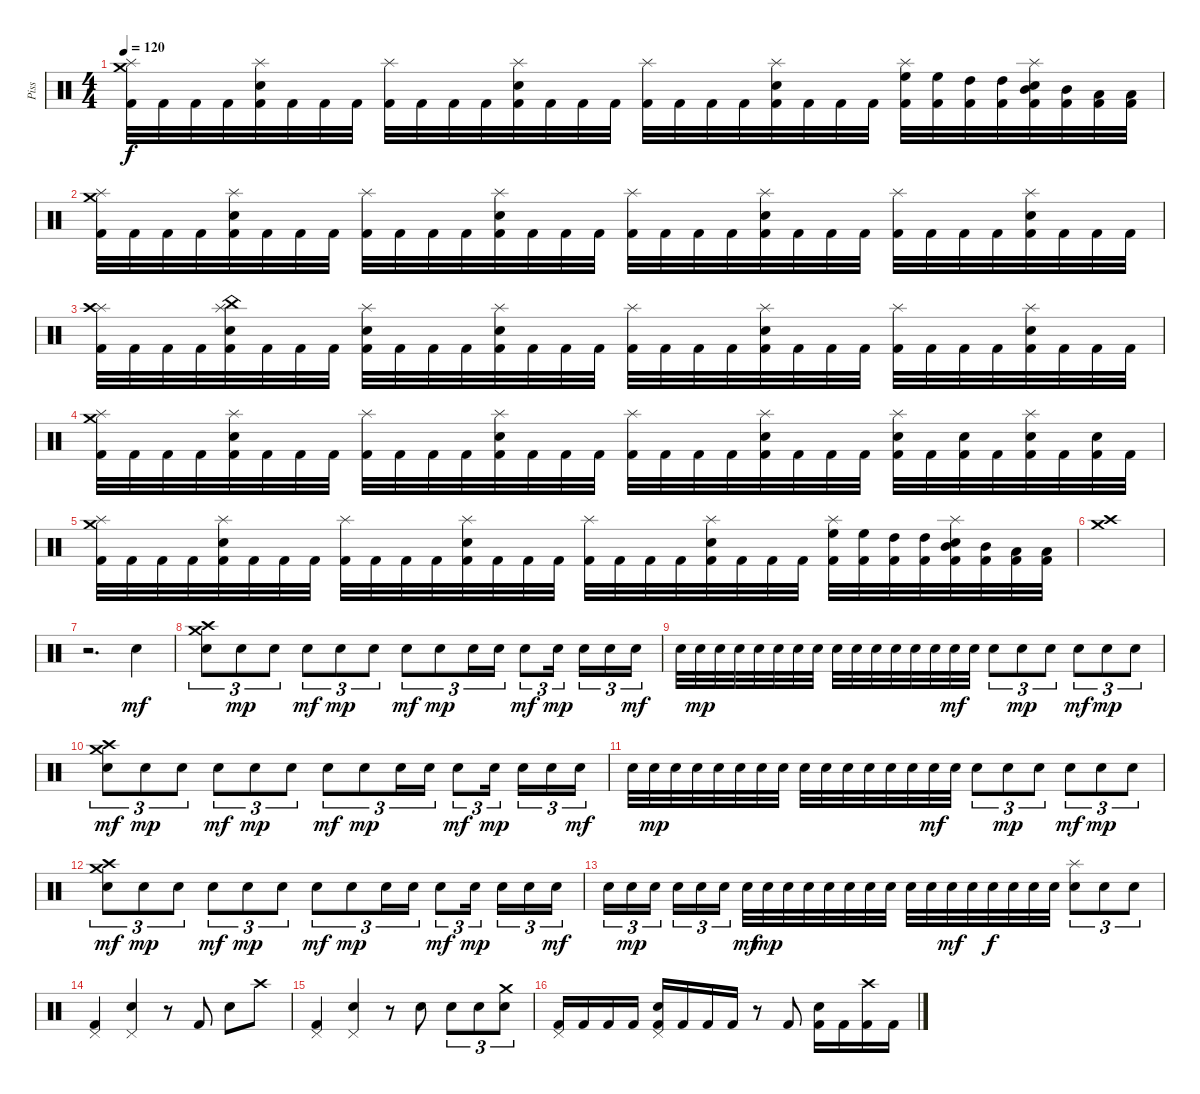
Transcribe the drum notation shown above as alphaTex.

\track ("Piss" "Piss") {instrument percussion}
\staff {score}
\articulation defaults
\ts (4 4)
\tempo 120
\clef neutral
\ks c
("Splash (hit)" "Crash medium (hit)" "Kick (hit) 2").32{dy f} "Kick (hit) 2".32 "Kick (hit) 2".32 "Kick (hit) 2".32 ("Splash (hit)" "Electric Snare (hit)" "Kick (hit) 2").32 "Kick (hit) 2".32 "Kick (hit) 2".32 "Kick (hit) 2".32 ("Splash (hit)" "Kick (hit) 2").32 "Kick (hit) 2".32 "Kick (hit) 2".32 "Kick (hit) 2".32 ("Splash (hit)" "Electric Snare (hit)" "Kick (hit) 2").32 "Kick (hit) 2".32 "Kick (hit) 2".32 "Kick (hit) 2".32 ("Splash (hit)" "Kick (hit) 2").32 "Kick (hit) 2".32 "Kick (hit) 2".32 "Kick (hit) 2".32 ("Splash (hit)" "Electric Snare (hit)" "Kick (hit) 2").32 "Kick (hit) 2".32 "Kick (hit) 2".32 "Kick (hit) 2".32 ("Splash (hit)" "High Floor Tom (hit)" "Kick (hit) 2").32 ("High Floor Tom (hit)" "Kick (hit) 2").32 ("High Tom (hit)" "Kick (hit) 2").32 ("High Tom (hit)" "Kick (hit) 2").32 ("Splash (hit)" "Mid Tom (hit)" "Electric Snare (hit)" "Kick (hit) 2").32 ("Mid Tom (hit)" "Kick (hit) 2").32 ("Low Tom (hit)" "Kick (hit) 2").32 ("Low Tom (hit)" "Kick (hit) 2").32 |
("Splash (hit)" "Crash medium (hit)" "Kick (hit) 2").32 "Kick (hit) 2".32 "Kick (hit) 2".32 "Kick (hit) 2".32 ("Splash (hit)" "Electric Snare (hit)" "Kick (hit) 2").32 "Kick (hit) 2".32 "Kick (hit) 2".32 "Kick (hit) 2".32 ("Splash (hit)" "Kick (hit) 2").32 "Kick (hit) 2".32 "Kick (hit) 2".32 "Kick (hit) 2".32 ("Splash (hit)" "Electric Snare (hit)" "Kick (hit) 2").32 "Kick (hit) 2".32 "Kick (hit) 2".32 "Kick (hit) 2".32 ("Splash (hit)" "Kick (hit) 2").32 "Kick (hit) 2".32 "Kick (hit) 2".32 "Kick (hit) 2".32 ("Splash (hit)" "Electric Snare (hit)" "Kick (hit) 2").32 "Kick (hit) 2".32 "Kick (hit) 2".32 "Kick (hit) 2".32 ("Splash (hit)" "Kick (hit) 2").32 "Kick (hit) 2".32 "Kick (hit) 2".32 "Kick (hit) 2".32 ("Splash (hit)" "Electric Snare (hit)" "Kick (hit) 2").32 "Kick (hit) 2".32 "Kick (hit) 2".32 "Kick (hit) 2".32 |
("Splash (hit)" "Crash high (hit)" "Kick (hit) 2").32 "Kick (hit) 2".32 "Kick (hit) 2".32 "Kick (hit) 2".32 ("Splash (hit)" "China (hit)" "Electric Snare (hit)" "Kick (hit) 2").32 "Kick (hit) 2".32 "Kick (hit) 2".32 "Kick (hit) 2".32 ("Splash (hit)" "Electric Snare (hit)" "Kick (hit) 2").32 "Kick (hit) 2".32 "Kick (hit) 2".32 "Kick (hit) 2".32 ("Splash (hit)" "Electric Snare (hit)" "Kick (hit) 2").32 "Kick (hit) 2".32 "Kick (hit) 2".32 "Kick (hit) 2".32 ("Splash (hit)" "Kick (hit) 2").32 "Kick (hit) 2".32 "Kick (hit) 2".32 "Kick (hit) 2".32 ("Splash (hit)" "Electric Snare (hit)" "Kick (hit) 2").32 "Kick (hit) 2".32 "Kick (hit) 2".32 "Kick (hit) 2".32 ("Splash (hit)" "Kick (hit) 2").32 "Kick (hit) 2".32 "Kick (hit) 2".32 "Kick (hit) 2".32 ("Splash (hit)" "Electric Snare (hit)" "Kick (hit) 2").32 "Kick (hit) 2".32 "Kick (hit) 2".32 "Kick (hit) 2".32 |
("Splash (hit)" "Crash medium (hit)" "Kick (hit) 2").32 "Kick (hit) 2".32 "Kick (hit) 2".32 "Kick (hit) 2".32 ("Splash (hit)" "Electric Snare (hit)" "Kick (hit) 2").32 "Kick (hit) 2".32 "Kick (hit) 2".32 "Kick (hit) 2".32 ("Splash (hit)" "Kick (hit) 2").32 "Kick (hit) 2".32 "Kick (hit) 2".32 "Kick (hit) 2".32 ("Splash (hit)" "Electric Snare (hit)" "Kick (hit) 2").32 "Kick (hit) 2".32 "Kick (hit) 2".32 "Kick (hit) 2".32 ("Splash (hit)" "Kick (hit) 2").32 "Kick (hit) 2".32 "Kick (hit) 2".32 "Kick (hit) 2".32 ("Splash (hit)" "Electric Snare (hit)" "Kick (hit) 2").32 "Kick (hit) 2".32 "Kick (hit) 2".32 "Kick (hit) 2".32 ("Splash (hit)" "Electric Snare (hit)" "Kick (hit) 2").32 "Kick (hit) 2".32 ("Electric Snare (hit)" "Kick (hit) 2").32 "Kick (hit) 2".32 ("Splash (hit)" "Electric Snare (hit)" "Kick (hit) 2").32 "Kick (hit) 2".32 ("Electric Snare (hit)" "Kick (hit) 2").32 "Kick (hit) 2".32 |
("Splash (hit)" "Crash medium (hit)" "Kick (hit) 2").32 "Kick (hit) 2".32 "Kick (hit) 2".32 "Kick (hit) 2".32 ("Splash (hit)" "Electric Snare (hit)" "Kick (hit) 2").32 "Kick (hit) 2".32 "Kick (hit) 2".32 "Kick (hit) 2".32 ("Splash (hit)" "Kick (hit) 2").32 "Kick (hit) 2".32 "Kick (hit) 2".32 "Kick (hit) 2".32 ("Splash (hit)" "Electric Snare (hit)" "Kick (hit) 2").32 "Kick (hit) 2".32 "Kick (hit) 2".32 "Kick (hit) 2".32 ("Splash (hit)" "Kick (hit) 2").32 "Kick (hit) 2".32 "Kick (hit) 2".32 "Kick (hit) 2".32 ("Splash (hit)" "Electric Snare (hit)" "Kick (hit) 2").32 "Kick (hit) 2".32 "Kick (hit) 2".32 "Kick (hit) 2".32 ("Splash (hit)" "High Floor Tom (hit)" "Kick (hit) 2").32 ("High Floor Tom (hit)" "Kick (hit) 2").32 ("High Tom (hit)" "Kick (hit) 2").32 ("High Tom (hit)" "Kick (hit) 2").32 ("Splash (hit)" "Mid Tom (hit)" "Electric Snare (hit)" "Kick (hit) 2").32 ("Mid Tom (hit)" "Kick (hit) 2").32 ("Low Tom (hit)" "Kick (hit) 2").32 ("Low Tom (hit)" "Kick (hit) 2").32 |
("Crash medium (hit)" "Crash high (hit)").1 |
r.2{d} "Electric Snare (hit)".4{dy mf} |
("Crash medium (hit)" "Crash high (hit)" "Electric Snare (hit)").8{tu (3 2)} "Electric Snare (hit)".8{tu (3 2) dy mp} "Electric Snare (hit)".8{tu (3 2)} "Electric Snare (hit)".8{tu (3 2) dy mf} "Electric Snare (hit)".8{tu (3 2) dy mp} "Electric Snare (hit)".8{tu (3 2)} "Electric Snare (hit)".8{tu (3 2) dy mf} "Electric Snare (hit)".8{tu (3 2) dy mp} "Electric Snare (hit)".16{tu (3 2)} "Electric Snare (hit)".16{tu (3 2)} "Electric Snare (hit)".8{tu (3 2) dy mf} "Electric Snare (hit)".16{tu (3 2) dy mp} "Electric Snare (hit)".16{tu (3 2)} "Electric Snare (hit)".16{tu (3 2)} "Electric Snare (hit)".16{tu (3 2) dy mf} |
"Electric Snare (hit)".32 "Electric Snare (hit)".32{dy mp} "Electric Snare (hit)".32 "Electric Snare (hit)".32 "Electric Snare (hit)".32 "Electric Snare (hit)".32 "Electric Snare (hit)".32 "Electric Snare (hit)".32 "Electric Snare (hit)".32 "Electric Snare (hit)".32 "Electric Snare (hit)".32 "Electric Snare (hit)".32 "Electric Snare (hit)".32 "Electric Snare (hit)".32 "Electric Snare (hit)".32{dy mf} "Electric Snare (hit)".32 "Electric Snare (hit)".8{tu (3 2)} "Electric Snare (hit)".8{tu (3 2) dy mp} "Electric Snare (hit)".8{tu (3 2)} "Electric Snare (hit)".8{tu (3 2) dy mf} "Electric Snare (hit)".8{tu (3 2) dy mp} "Electric Snare (hit)".8{tu (3 2)} |
("Crash medium (hit)" "Crash high (hit)" "Electric Snare (hit)").8{tu (3 2) dy mf} "Electric Snare (hit)".8{tu (3 2) dy mp} "Electric Snare (hit)".8{tu (3 2)} "Electric Snare (hit)".8{tu (3 2) dy mf} "Electric Snare (hit)".8{tu (3 2) dy mp} "Electric Snare (hit)".8{tu (3 2)} "Electric Snare (hit)".8{tu (3 2) dy mf} "Electric Snare (hit)".8{tu (3 2) dy mp} "Electric Snare (hit)".16{tu (3 2)} "Electric Snare (hit)".16{tu (3 2)} "Electric Snare (hit)".8{tu (3 2) dy mf} "Electric Snare (hit)".16{tu (3 2) dy mp} "Electric Snare (hit)".16{tu (3 2)} "Electric Snare (hit)".16{tu (3 2)} "Electric Snare (hit)".16{tu (3 2) dy mf} |
"Electric Snare (hit)".32 "Electric Snare (hit)".32{dy mp} "Electric Snare (hit)".32 "Electric Snare (hit)".32 "Electric Snare (hit)".32 "Electric Snare (hit)".32 "Electric Snare (hit)".32 "Electric Snare (hit)".32 "Electric Snare (hit)".32 "Electric Snare (hit)".32 "Electric Snare (hit)".32 "Electric Snare (hit)".32 "Electric Snare (hit)".32 "Electric Snare (hit)".32 "Electric Snare (hit)".32{dy mf} "Electric Snare (hit)".32 "Electric Snare (hit)".8{tu (3 2)} "Electric Snare (hit)".8{tu (3 2) dy mp} "Electric Snare (hit)".8{tu (3 2)} "Electric Snare (hit)".8{tu (3 2) dy mf} "Electric Snare (hit)".8{tu (3 2) dy mp} "Electric Snare (hit)".8{tu (3 2)} |
("Crash medium (hit)" "Crash high (hit)" "Electric Snare (hit)").8{tu (3 2) dy mf} "Electric Snare (hit)".8{tu (3 2) dy mp} "Electric Snare (hit)".8{tu (3 2)} "Electric Snare (hit)".8{tu (3 2) dy mf} "Electric Snare (hit)".8{tu (3 2) dy mp} "Electric Snare (hit)".8{tu (3 2)} "Electric Snare (hit)".8{tu (3 2) dy mf} "Electric Snare (hit)".8{tu (3 2) dy mp} "Electric Snare (hit)".16{tu (3 2)} "Electric Snare (hit)".16{tu (3 2)} "Electric Snare (hit)".8{tu (3 2) dy mf} "Electric Snare (hit)".16{tu (3 2) dy mp} "Electric Snare (hit)".16{tu (3 2)} "Electric Snare (hit)".16{tu (3 2)} "Electric Snare (hit)".16{tu (3 2) dy mf} |
"Electric Snare (hit)".16{tu (3 2)} "Electric Snare (hit)".16{tu (3 2) dy mp} "Electric Snare (hit)".16{tu (3 2)} "Electric Snare (hit)".16{tu (3 2)} "Electric Snare (hit)".16{tu (3 2)} "Electric Snare (hit)".16{tu (3 2)} "Electric Snare (hit)".32{dy mf} "Electric Snare (hit)".32{dy mp} "Electric Snare (hit)".32 "Electric Snare (hit)".32 "Electric Snare (hit)".32 "Electric Snare (hit)".32 "Electric Snare (hit)".32 "Electric Snare (hit)".32 "Electric Snare (hit)".32 "Electric Snare (hit)".32 "Electric Snare (hit)".32{dy mf} "Electric Snare (hit)".32 "Electric Snare (hit)".32{dy f} "Electric Snare (hit)".32 "Electric Snare (hit)".32 "Electric Snare (hit)".32 ("Splash (hit)" "Electric Snare (hit)").8{tu (3 2)} "Electric Snare (hit)".8{tu (3 2)} "Electric Snare (hit)".8{tu (3 2)} |
("Pedal Hi-Hat (hit)" "Kick (hit) 2").4 ("Pedal Hi-Hat (hit)" "Electric Snare (hit)").4 r.8 "Kick (hit) 2".8 "Electric Snare (hit)".8 "Crash high (hit)".8 |
("Pedal Hi-Hat (hit)" "Kick (hit) 2").4 ("Pedal Hi-Hat (hit)" "Electric Snare (hit)").4 r.8 "Electric Snare (hit)".8 "Electric Snare (hit)".8{tu (3 2)} "Electric Snare (hit)".8{tu (3 2)} ("Crash medium (hit)" "Electric Snare (hit)").8{tu (3 2)} |
("Pedal Hi-Hat (hit)" "Kick (hit) 2").16 "Kick (hit) 2".16 "Kick (hit) 2".16 "Kick (hit) 2".16 ("Pedal Hi-Hat (hit)" "Electric Snare (hit)" "Kick (hit) 2").16 "Kick (hit) 2".16 "Kick (hit) 2".16 "Kick (hit) 2".16 r.8 "Kick (hit) 2".8 ("Electric Snare (hit)" "Kick (hit) 2").16 "Kick (hit) 2".16 ("Crash high (hit)" "Kick (hit) 2").16 "Kick (hit) 2".16
